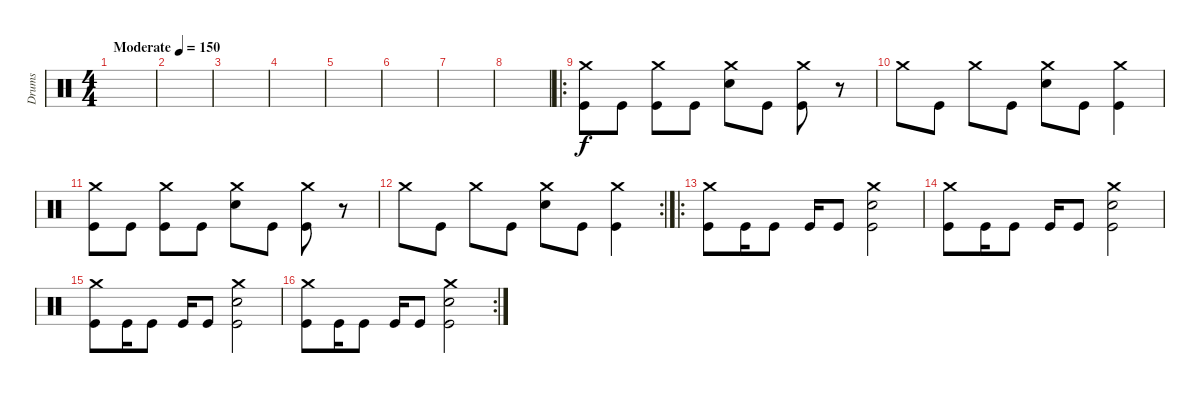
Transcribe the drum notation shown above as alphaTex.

\track ("Drums" "Drums") {instrument percussion}
\staff {score}
\articulation defaults
\ts (4 4)
\tempo (150 "Moderate")
\clef neutral
\ks c
|
|
|
|
|
|
|
|
\ro
("Crash medium (hit)" "Kick (hit)").8 "Kick (hit)".8 ("Crash medium (hit)" "Kick (hit)").8 "Kick (hit)".8 ("Crash medium (hit)" "Snare (hit) 2").8 "Kick (hit)".8 ("Crash medium (hit)" "Kick (hit)").8 r.8 |
"Crash medium (hit)".8 "Kick (hit)".8 "Crash medium (hit)".8 "Kick (hit)".8 ("Crash medium (hit)" "Snare (hit) 2").8 "Kick (hit)".8 ("Crash medium (hit)" "Kick (hit)").4 |
("Crash medium (hit)" "Kick (hit)").8 "Kick (hit)".8 ("Crash medium (hit)" "Kick (hit)").8 "Kick (hit)".8 ("Crash medium (hit)" "Snare (hit) 2").8 "Kick (hit)".8 ("Crash medium (hit)" "Kick (hit)").8 r.8 |
\rc 2 "Crash medium (hit)".8 "Kick (hit)".8 "Crash medium (hit)".8 "Kick (hit)".8
("Crash medium (hit)" "Snare (hit) 2").8 "Kick (hit)".8 ("Crash medium (hit)" "Kick (hit)").4 |
\ro
("Crash medium (hit)" "Kick (hit)").8 "Kick (hit)".16 "Kick (hit)".8 "Kick (hit)".16 "Kick (hit)".8 ("Crash medium (hit)" "Snare (hit) 2" "Kick (hit)").2 |
("Crash medium (hit)" "Kick (hit)").8 "Kick (hit)".16 "Kick (hit)".8 "Kick (hit)".16 "Kick (hit)".8 ("Crash medium (hit)" "Snare (hit) 2" "Kick (hit)").2 |
("Crash medium (hit)" "Kick (hit)").8 "Kick (hit)".16 "Kick (hit)".8 "Kick (hit)".16 "Kick (hit)".8 ("Crash medium (hit)" "Snare (hit) 2" "Kick (hit)").2 |
\rc 2
("Crash medium (hit)" "Kick (hit)").8 "Kick (hit)".16 "Kick (hit)".8 "Kick (hit)".16 "Kick (hit)".8 ("Crash medium (hit)" "Snare (hit) 2" "Kick (hit)").2
